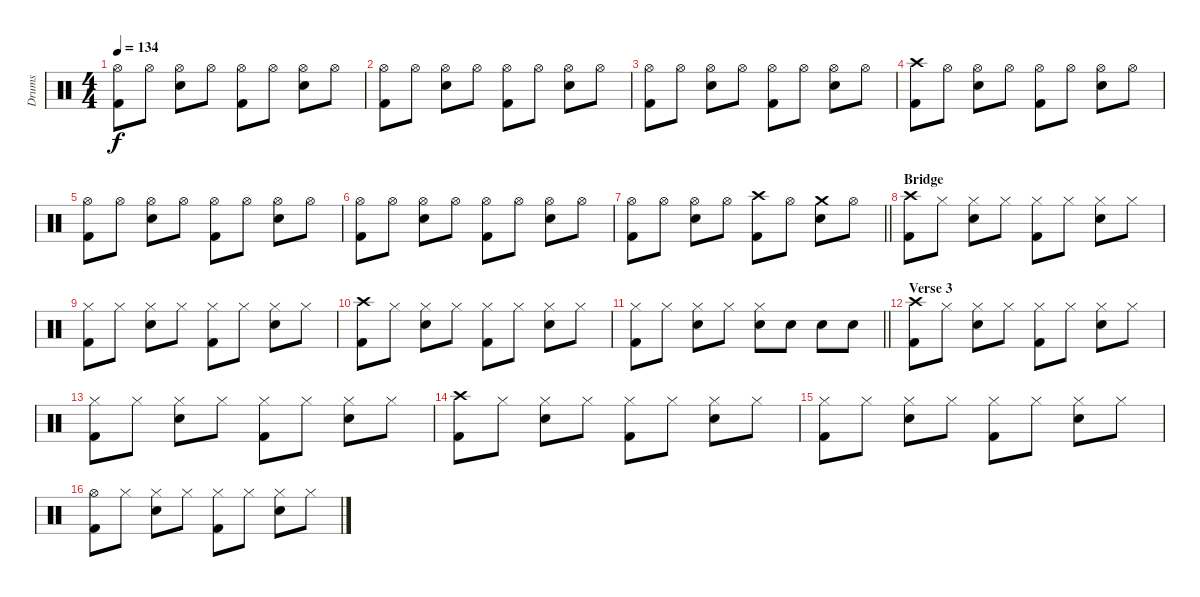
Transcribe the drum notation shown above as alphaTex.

\track ("Drums" "Drums") {instrument percussion}
\staff {score}
\articulation defaults
\ts (4 4)
\tempo 134
\clef neutral
\ks c
("Hi-Hat (open)" "Kick (hit) 2").8{dy f} "Hi-Hat (open)".8 ("Hi-Hat (open)" "Snare (hit) 2").8 "Hi-Hat (open)".8 ("Hi-Hat (open)" "Kick (hit) 2").8 "Hi-Hat (open)".8 ("Hi-Hat (open)" "Snare (hit) 2").8 "Hi-Hat (open)".8 |
("Hi-Hat (open)" "Kick (hit) 2").8 "Hi-Hat (open)".8 ("Hi-Hat (open)" "Snare (hit) 2").8 "Hi-Hat (open)".8 ("Hi-Hat (open)" "Kick (hit) 2").8 "Hi-Hat (open)".8 ("Hi-Hat (open)" "Snare (hit) 2").8 "Hi-Hat (open)".8 |
("Hi-Hat (open)" "Kick (hit) 2").8 "Hi-Hat (open)".8 ("Hi-Hat (open)" "Snare (hit) 2").8 "Hi-Hat (open)".8 ("Hi-Hat (open)" "Kick (hit) 2").8 "Hi-Hat (open)".8 ("Hi-Hat (open)" "Snare (hit) 2").8 "Hi-Hat (open)".8 |
("Crash high (hit)" "Kick (hit) 2").8 "Hi-Hat (open)".8 ("Hi-Hat (open)" "Snare (hit) 2").8 "Hi-Hat (open)".8 ("Hi-Hat (open)" "Kick (hit) 2").8 "Hi-Hat (open)".8 ("Hi-Hat (open)" "Snare (hit) 2").8 "Hi-Hat (open)".8 |
("Hi-Hat (open)" "Kick (hit) 2").8 "Hi-Hat (open)".8 ("Hi-Hat (open)" "Snare (hit) 2").8 "Hi-Hat (open)".8 ("Hi-Hat (open)" "Kick (hit) 2").8 "Hi-Hat (open)".8 ("Hi-Hat (open)" "Snare (hit) 2").8 "Hi-Hat (open)".8 |
("Hi-Hat (open)" "Kick (hit) 2").8 "Hi-Hat (open)".8 ("Hi-Hat (open)" "Snare (hit) 2").8 "Hi-Hat (open)".8 ("Hi-Hat (open)" "Kick (hit) 2").8 "Hi-Hat (open)".8 ("Hi-Hat (open)" "Snare (hit) 2").8 "Hi-Hat (open)".8 |
\barLineRight lightlight
("Hi-Hat (open)" "Kick (hit) 2").8 "Hi-Hat (open)".8 ("Hi-Hat (open)" "Snare (hit) 2").8 "Hi-Hat (open)".8 ("Crash high (hit)" "Kick (hit) 2").8 "Hi-Hat (open)".8 ("Crash medium (hit)" "Snare (hit) 2").8 "Hi-Hat (open)".8 |
\section ("" "Bridge")
("Crash high (hit)" "Kick (hit) 2").8 "Hi-Hat (closed)".8 ("Hi-Hat (closed)" "Snare (hit) 2").8 "Hi-Hat (closed)".8 ("Hi-Hat (closed)" "Kick (hit) 2").8 "Hi-Hat (closed)".8 ("Hi-Hat (closed)" "Snare (hit) 2").8 "Hi-Hat (closed)".8 |
("Hi-Hat (closed)" "Kick (hit) 2").8 "Hi-Hat (closed)".8 ("Hi-Hat (closed)" "Snare (hit) 2").8 "Hi-Hat (closed)".8 ("Hi-Hat (closed)" "Kick (hit) 2").8 "Hi-Hat (closed)".8 ("Hi-Hat (closed)" "Snare (hit) 2").8 "Hi-Hat (closed)".8 |
("Crash high (hit)" "Kick (hit) 2").8 "Hi-Hat (closed)".8 ("Hi-Hat (closed)" "Snare (hit) 2").8 "Hi-Hat (closed)".8 ("Hi-Hat (closed)" "Kick (hit) 2").8 "Hi-Hat (closed)".8 ("Hi-Hat (closed)" "Snare (hit) 2").8 "Hi-Hat (closed)".8 |
\barLineRight lightlight
("Hi-Hat (closed)" "Kick (hit) 2").8 "Hi-Hat (closed)".8 ("Hi-Hat (closed)" "Snare (hit) 2").8 "Hi-Hat (closed)".8 ("Hi-Hat (closed)" "Snare (hit) 2").8 "Snare (hit) 2".8 "Snare (hit) 2".8 "Snare (hit) 2".8 |
\section ("" "Verse 3")
("Crash high (hit)" "Kick (hit) 2").8 "Hi-Hat (closed)".8 ("Hi-Hat (closed)" "Snare (hit) 2").8 "Hi-Hat (closed)".8 ("Hi-Hat (closed)" "Kick (hit) 2").8 "Hi-Hat (closed)".8 ("Hi-Hat (closed)" "Snare (hit) 2").8 "Hi-Hat (closed)".8 |
("Hi-Hat (closed)" "Kick (hit) 2").8 "Hi-Hat (closed)".8 ("Hi-Hat (closed)" "Snare (hit) 2").8 "Hi-Hat (closed)".8 ("Hi-Hat (closed)" "Kick (hit) 2").8 "Hi-Hat (closed)".8 ("Hi-Hat (closed)" "Snare (hit) 2").8 "Hi-Hat (closed)".8 |
("Crash high (hit)" "Kick (hit) 2").8 "Hi-Hat (closed)".8 ("Hi-Hat (closed)" "Snare (hit) 2").8 "Hi-Hat (closed)".8 ("Hi-Hat (closed)" "Kick (hit) 2").8 "Hi-Hat (closed)".8 ("Hi-Hat (closed)" "Snare (hit) 2").8 "Hi-Hat (closed)".8 |
("Hi-Hat (closed)" "Kick (hit) 2").8 "Hi-Hat (closed)".8 ("Hi-Hat (closed)" "Snare (hit) 2").8 "Hi-Hat (closed)".8 ("Hi-Hat (closed)" "Kick (hit) 2").8 "Hi-Hat (closed)".8 ("Hi-Hat (closed)" "Snare (hit) 2").8 "Hi-Hat (closed)".8 |
("Hi-Hat (open)" "Kick (hit) 2").8 "Hi-Hat (closed)".8 ("Hi-Hat (closed)" "Snare (hit) 2").8 "Hi-Hat (closed)".8 ("Hi-Hat (closed)" "Kick (hit) 2").8 "Hi-Hat (closed)".8 ("Hi-Hat (closed)" "Snare (hit) 2").8 "Hi-Hat (closed)".8
